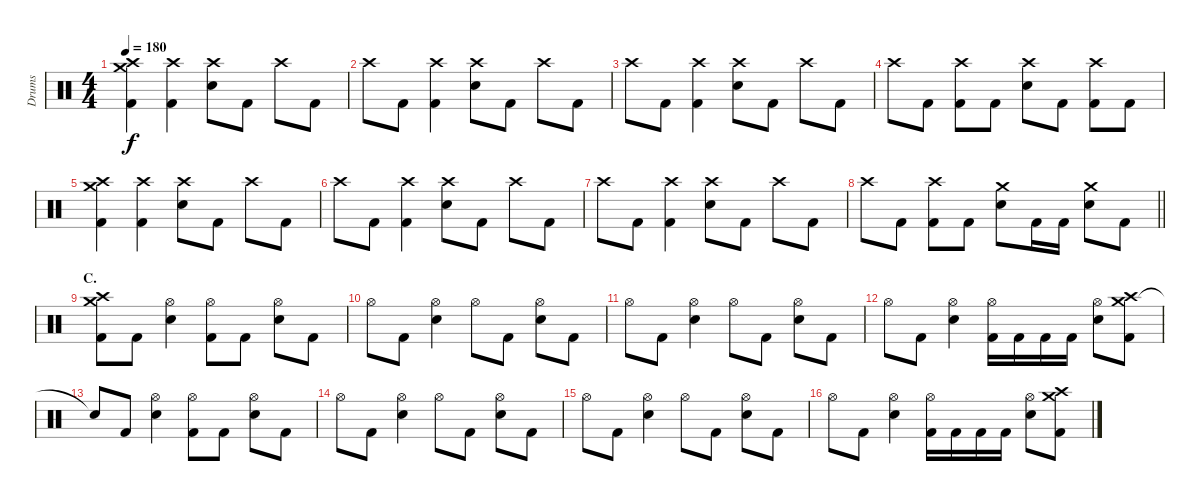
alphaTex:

\track ("Drums" "Drums") {instrument percussion}
\staff {score}
\articulation defaults
\ts (4 4)
\tempo 180
\clef neutral
\ks c
("Crash medium (hit)" "Crash high (hit)" "Kick (hit) 2").4{dy f} ("Crash high (hit)" "Kick (hit) 2").4 ("Crash high (hit)" "Electric Snare (hit)").8 "Kick (hit) 2".8 "Crash high (hit)".8 "Kick (hit) 2".8 |
"Crash high (hit)".8 "Kick (hit) 2".8 ("Crash high (hit)" "Kick (hit) 2").4 ("Crash high (hit)" "Electric Snare (hit)").8 "Kick (hit) 2".8 "Crash high (hit)".8 "Kick (hit) 2".8 |
"Crash high (hit)".8 "Kick (hit) 2".8 ("Crash high (hit)" "Kick (hit) 2").4 ("Crash high (hit)" "Electric Snare (hit)").8 "Kick (hit) 2".8 "Crash high (hit)".8 "Kick (hit) 2".8 |
"Crash high (hit)".8 "Kick (hit) 2".8 ("Crash high (hit)" "Kick (hit) 2").8 "Kick (hit) 2".8 ("Crash high (hit)" "Electric Snare (hit)").8 "Kick (hit) 2".8 ("Crash high (hit)" "Kick (hit) 2").8 "Kick (hit) 2".8 |
("Crash medium (hit)" "Crash high (hit)" "Kick (hit) 2").4 ("Crash high (hit)" "Kick (hit) 2").4 ("Crash high (hit)" "Electric Snare (hit)").8 "Kick (hit) 2".8 "Crash high (hit)".8 "Kick (hit) 2".8 |
"Crash high (hit)".8 "Kick (hit) 2".8 ("Crash high (hit)" "Kick (hit) 2").4 ("Crash high (hit)" "Electric Snare (hit)").8 "Kick (hit) 2".8 "Crash high (hit)".8 "Kick (hit) 2".8 |
"Crash high (hit)".8 "Kick (hit) 2".8 ("Crash high (hit)" "Kick (hit) 2").4 ("Crash high (hit)" "Electric Snare (hit)").8 "Kick (hit) 2".8 "Crash high (hit)".8 "Kick (hit) 2".8 |
\barLineRight lightlight "Crash high (hit)".8 "Kick (hit) 2".8
("Crash high (hit)" "Kick (hit) 2").8 "Kick (hit) 2".8 ("Crash medium (hit)" "Electric Snare (hit)").8 "Kick (hit) 2".16 "Kick (hit) 2".16 ("Crash medium (hit)" "Electric Snare (hit)").8 "Kick (hit) 2".8 |
\section ("" "C.")
("Crash medium (hit)" "Crash high (hit)" "Kick (hit) 2").8 "Kick (hit) 2".8 ("Hi-Hat (open)" "Electric Snare (hit)").4 ("Hi-Hat (open)" "Kick (hit) 2").8 "Kick (hit) 2".8 ("Hi-Hat (open)" "Electric Snare (hit)").8 "Kick (hit) 2".8 |
"Hi-Hat (open)".8 "Kick (hit) 2".8 ("Hi-Hat (open)" "Electric Snare (hit)").4 "Hi-Hat (open)".8 "Kick (hit) 2".8 ("Hi-Hat (open)" "Electric Snare (hit)").8 "Kick (hit) 2".8 |
"Hi-Hat (open)".8 "Kick (hit) 2".8 ("Hi-Hat (open)" "Electric Snare (hit)").4 "Hi-Hat (open)".8 "Kick (hit) 2".8 ("Hi-Hat (open)" "Electric Snare (hit)").8 "Kick (hit) 2".8 |
"Hi-Hat (open)".8 "Kick (hit) 2".8 ("Hi-Hat (open)" "Electric Snare (hit)").4 ("Hi-Hat (open)" "Kick (hit) 2").16 "Kick (hit) 2".16 "Kick (hit) 2".16 "Kick (hit) 2".16 ("Hi-Hat (open)" "Electric Snare (hit)").8 ("Crash medium (hit)" "Crash high (hit)" "Kick (hit) 2").8 |
"Snare (hit)"{t}.8 "Kick (hit) 2".8 ("Hi-Hat (open)" "Electric Snare (hit)").4 ("Hi-Hat (open)" "Kick (hit) 2").8 "Kick (hit) 2".8 ("Hi-Hat (open)" "Electric Snare (hit)").8 "Kick (hit) 2".8 |
"Hi-Hat (open)".8 "Kick (hit) 2".8 ("Hi-Hat (open)" "Electric Snare (hit)").4 "Hi-Hat (open)".8 "Kick (hit) 2".8 ("Hi-Hat (open)" "Electric Snare (hit)").8 "Kick (hit) 2".8 |
"Hi-Hat (open)".8 "Kick (hit) 2".8 ("Hi-Hat (open)" "Electric Snare (hit)").4 "Hi-Hat (open)".8 "Kick (hit) 2".8 ("Hi-Hat (open)" "Electric Snare (hit)").8 "Kick (hit) 2".8 |
"Hi-Hat (open)".8 "Kick (hit) 2".8 ("Hi-Hat (open)" "Electric Snare (hit)").4 ("Hi-Hat (open)" "Kick (hit) 2").16 "Kick (hit) 2".16 "Kick (hit) 2".16 "Kick (hit) 2".16 ("Hi-Hat (open)" "Electric Snare (hit)").8 ("Crash medium (hit)" "Crash high (hit)" "Kick (hit) 2").8
